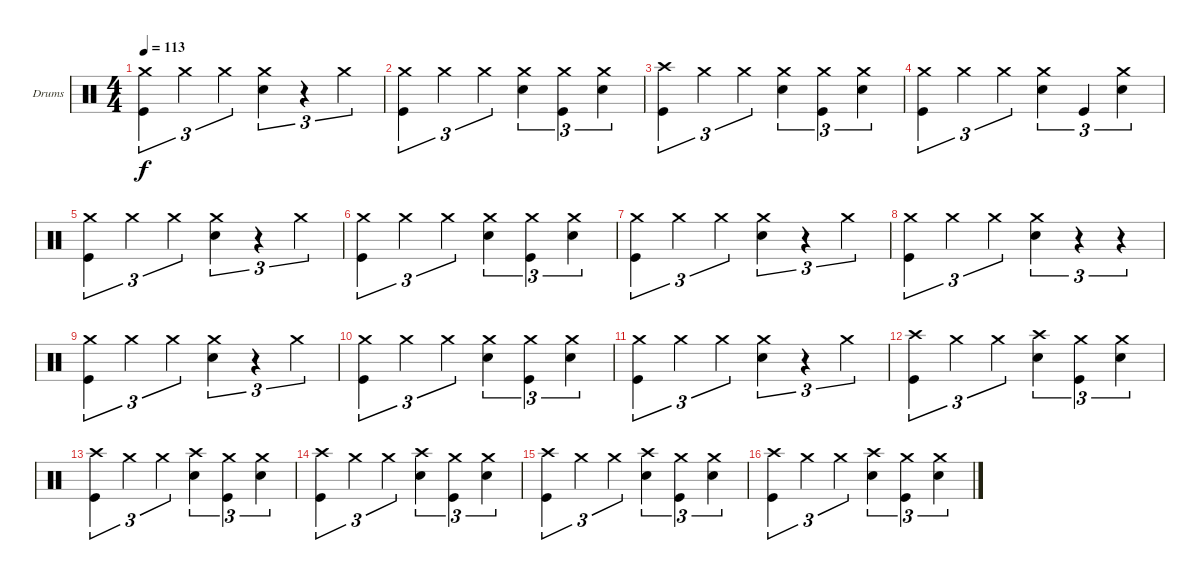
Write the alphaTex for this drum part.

\defaultSystemsLayout 4
\bracketExtendMode groupsimilarinstruments
\firstSystemTrackNameOrientation horizontal
\otherSystemsTrackNameOrientation horizontal
\track ("Drumkit" "Drums") {instrument percussion}
\staff {score}
\articulation defaults
\ts (4 4)
\tempo 113
\clef neutral
\ks c
("Kick (hit)" "Crash medium (hit)").4{tu (3 2) dy f} "Crash medium (hit)".4{tu (3 2)} "Crash medium (hit)".4{tu (3 2)} ("Snare (hit) 2" "Crash medium (hit)").4{tu (3 2)} r.4{tu (3 2)} "Crash medium (hit)".4{tu (3 2)} |
("Kick (hit)" "Crash medium (hit)").4{tu (3 2)} "Crash medium (hit)".4{tu (3 2)} "Crash medium (hit)".4{tu (3 2)} ("Snare (hit) 2" "Crash medium (hit)").4{tu (3 2)} ("Kick (hit)" "Crash medium (hit)").4{tu (3 2)} ("Crash medium (hit)" "Snare (hit) 2").4{tu (3 2)} |
("Kick (hit)" "Crash high (hit)").4{tu (3 2)} "Crash medium (hit)".4{tu (3 2)} "Crash medium (hit)".4{tu (3 2)} ("Snare (hit) 2" "Crash medium (hit)").4{tu (3 2)} ("Kick (hit)" "Crash medium (hit)").4{tu (3 2)} ("Crash medium (hit)" "Snare (hit) 2").4{tu (3 2)} |
("Kick (hit)" "Crash medium (hit)").4{tu (3 2)} "Crash medium (hit)".4{tu (3 2)} "Crash medium (hit)".4{tu (3 2)} ("Snare (hit) 2" "Crash medium (hit)").4{tu (3 2)} "Kick (hit)".4{tu (3 2)} ("Crash medium (hit)" "Snare (hit) 2").4{tu (3 2)} |
("Kick (hit)" "Crash medium (hit)").4{tu (3 2)} "Crash medium (hit)".4{tu (3 2)} "Crash medium (hit)".4{tu (3 2)} ("Snare (hit) 2" "Crash medium (hit)").4{tu (3 2)} r.4{tu (3 2)} "Crash medium (hit)".4{tu (3 2)} |
("Kick (hit)" "Crash medium (hit)").4{tu (3 2)} "Crash medium (hit)".4{tu (3 2)} "Crash medium (hit)".4{tu (3 2)} ("Snare (hit) 2" "Crash medium (hit)").4{tu (3 2)} ("Kick (hit)" "Crash medium (hit)").4{tu (3 2)} ("Crash medium (hit)" "Snare (hit) 2").4{tu (3 2)} |
("Kick (hit)" "Crash medium (hit)").4{tu (3 2)} "Crash medium (hit)".4{tu (3 2)} "Crash medium (hit)".4{tu (3 2)} ("Snare (hit) 2" "Crash medium (hit)").4{tu (3 2)} r.4{tu (3 2)} "Crash medium (hit)".4{tu (3 2)} |
("Kick (hit)" "Crash medium (hit)").4{tu (3 2)} "Crash medium (hit)".4{tu (3 2)} "Crash medium (hit)".4{tu (3 2)} ("Snare (hit) 2" "Crash medium (hit)").4{tu (3 2)} r.4{tu (3 2)} r.4{tu (3 2)} |
("Kick (hit)" "Crash medium (hit)").4{tu (3 2)} "Crash medium (hit)".4{tu (3 2)} "Crash medium (hit)".4{tu (3 2)} ("Snare (hit) 2" "Crash medium (hit)").4{tu (3 2)} r.4{tu (3 2)} "Crash medium (hit)".4{tu (3 2)} |
("Kick (hit)" "Crash medium (hit)").4{tu (3 2)} "Crash medium (hit)".4{tu (3 2)} "Crash medium (hit)".4{tu (3 2)} ("Snare (hit) 2" "Crash medium (hit)").4{tu (3 2)} ("Kick (hit)" "Crash medium (hit)").4{tu (3 2)} ("Crash medium (hit)" "Snare (hit) 2").4{tu (3 2)} |
("Kick (hit)" "Crash medium (hit)").4{tu (3 2)} "Crash medium (hit)".4{tu (3 2)} "Crash medium (hit)".4{tu (3 2)} ("Snare (hit) 2" "Crash medium (hit)").4{tu (3 2)} r.4{tu (3 2)} "Crash medium (hit)".4{tu (3 2)} |
("Kick (hit)" "Crash high (hit)").4{tu (3 2)} "Crash medium (hit)".4{tu (3 2)} "Crash medium (hit)".4{tu (3 2)} ("Snare (hit) 2" "Crash high (hit)").4{tu (3 2)} ("Kick (hit)" "Crash medium (hit)").4{tu (3 2)} ("Crash medium (hit)" "Snare (hit) 2").4{tu (3 2)} |
("Kick (hit)" "Crash high (hit)").4{tu (3 2)} "Crash medium (hit)".4{tu (3 2)} "Crash medium (hit)".4{tu (3 2)} ("Snare (hit) 2" "Crash high (hit)").4{tu (3 2)} ("Kick (hit)" "Crash medium (hit)").4{tu (3 2)} ("Crash medium (hit)" "Snare (hit) 2").4{tu (3 2)} |
("Kick (hit)" "Crash high (hit)").4{tu (3 2)} "Crash medium (hit)".4{tu (3 2)} "Crash medium (hit)".4{tu (3 2)} ("Snare (hit) 2" "Crash high (hit)").4{tu (3 2)} ("Kick (hit)" "Crash medium (hit)").4{tu (3 2)} ("Crash medium (hit)" "Snare (hit) 2").4{tu (3 2)} |
("Kick (hit)" "Crash high (hit)").4{tu (3 2)} "Crash medium (hit)".4{tu (3 2)} "Crash medium (hit)".4{tu (3 2)} ("Snare (hit) 2" "Crash high (hit)").4{tu (3 2)} ("Kick (hit)" "Crash medium (hit)").4{tu (3 2)} ("Crash medium (hit)" "Snare (hit) 2").4{tu (3 2)} |
("Kick (hit)" "Crash high (hit)").4{tu (3 2)} "Crash medium (hit)".4{tu (3 2)} "Crash medium (hit)".4{tu (3 2)} ("Snare (hit) 2" "Crash high (hit)").4{tu (3 2)} ("Kick (hit)" "Crash medium (hit)").4{tu (3 2)} ("Crash medium (hit)" "Snare (hit) 2").4{tu (3 2)}
